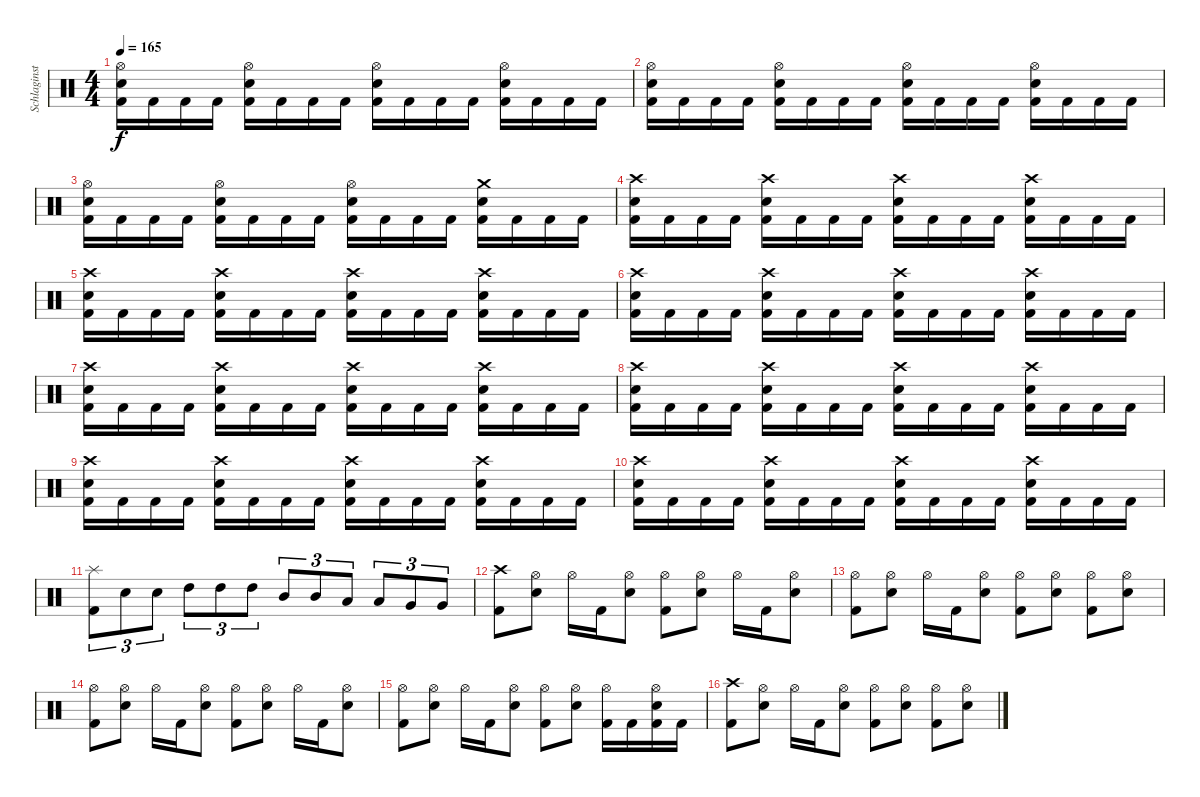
\track ("Schlaginstrumente - Auswahl" "Schlaginst") {instrument percussion}
\staff {score}
\articulation defaults
\ts (4 4)
\tempo 165
\clef neutral
\ks c
("Hi-Hat (open)" "Snare (hit) 2" "Kick (hit) 2").16{dy f} "Kick (hit) 2".16 "Kick (hit) 2".16 "Kick (hit) 2".16 ("Hi-Hat (open)" "Snare (hit) 2" "Kick (hit) 2").16 "Kick (hit) 2".16 "Kick (hit) 2".16 "Kick (hit) 2".16 ("Hi-Hat (open)" "Snare (hit) 2" "Kick (hit) 2").16 "Kick (hit) 2".16 "Kick (hit) 2".16 "Kick (hit) 2".16 ("Hi-Hat (open)" "Snare (hit) 2" "Kick (hit) 2").16 "Kick (hit) 2".16 "Kick (hit) 2".16 "Kick (hit) 2".16 |
("Hi-Hat (open)" "Snare (hit) 2" "Kick (hit) 2").16 "Kick (hit) 2".16 "Kick (hit) 2".16 "Kick (hit) 2".16 ("Hi-Hat (open)" "Snare (hit) 2" "Kick (hit) 2").16 "Kick (hit) 2".16 "Kick (hit) 2".16 "Kick (hit) 2".16 ("Hi-Hat (open)" "Snare (hit) 2" "Kick (hit) 2").16 "Kick (hit) 2".16 "Kick (hit) 2".16 "Kick (hit) 2".16 ("Hi-Hat (open)" "Snare (hit) 2" "Kick (hit) 2").16 "Kick (hit) 2".16 "Kick (hit) 2".16 "Kick (hit) 2".16 |
("Hi-Hat (open)" "Snare (hit) 2" "Kick (hit) 2").16 "Kick (hit) 2".16 "Kick (hit) 2".16 "Kick (hit) 2".16 ("Hi-Hat (open)" "Snare (hit) 2" "Kick (hit) 2").16 "Kick (hit) 2".16 "Kick (hit) 2".16 "Kick (hit) 2".16 ("Hi-Hat (open)" "Snare (hit) 2" "Kick (hit) 2").16 "Kick (hit) 2".16 "Kick (hit) 2".16 "Kick (hit) 2".16 ("Crash medium (hit)" "Snare (hit) 2" "Kick (hit) 2").16 "Kick (hit) 2".16 "Kick (hit) 2".16 "Kick (hit) 2".16 |
("Crash high (hit)" "Snare (hit) 2" "Kick (hit) 2").16 "Kick (hit) 2".16 "Kick (hit) 2".16 "Kick (hit) 2".16 ("Crash high (hit)" "Snare (hit) 2" "Kick (hit) 2").16 "Kick (hit) 2".16 "Kick (hit) 2".16 "Kick (hit) 2".16 ("Crash high (hit)" "Snare (hit) 2" "Kick (hit) 2").16 "Kick (hit) 2".16 "Kick (hit) 2".16 "Kick (hit) 2".16 ("Crash high (hit)" "Snare (hit) 2" "Kick (hit) 2").16 "Kick (hit) 2".16 "Kick (hit) 2".16 "Kick (hit) 2".16 |
("Crash high (hit)" "Snare (hit) 2" "Kick (hit) 2").16 "Kick (hit) 2".16 "Kick (hit) 2".16 "Kick (hit) 2".16 ("Crash high (hit)" "Snare (hit) 2" "Kick (hit) 2").16 "Kick (hit) 2".16 "Kick (hit) 2".16 "Kick (hit) 2".16 ("Crash high (hit)" "Snare (hit) 2" "Kick (hit) 2").16 "Kick (hit) 2".16 "Kick (hit) 2".16 "Kick (hit) 2".16 ("Crash high (hit)" "Snare (hit) 2" "Kick (hit) 2").16 "Kick (hit) 2".16 "Kick (hit) 2".16 "Kick (hit) 2".16 |
("Crash high (hit)" "Snare (hit) 2" "Kick (hit) 2").16 "Kick (hit) 2".16 "Kick (hit) 2".16 "Kick (hit) 2".16 ("Crash high (hit)" "Snare (hit) 2" "Kick (hit) 2").16 "Kick (hit) 2".16 "Kick (hit) 2".16 "Kick (hit) 2".16 ("Crash high (hit)" "Snare (hit) 2" "Kick (hit) 2").16 "Kick (hit) 2".16 "Kick (hit) 2".16 "Kick (hit) 2".16 ("Crash high (hit)" "Snare (hit) 2" "Kick (hit) 2").16 "Kick (hit) 2".16 "Kick (hit) 2".16 "Kick (hit) 2".16 |
("Crash high (hit)" "Snare (hit) 2" "Kick (hit) 2").16 "Kick (hit) 2".16 "Kick (hit) 2".16 "Kick (hit) 2".16 ("Crash high (hit)" "Snare (hit) 2" "Kick (hit) 2").16 "Kick (hit) 2".16 "Kick (hit) 2".16 "Kick (hit) 2".16 ("Crash high (hit)" "Snare (hit) 2" "Kick (hit) 2").16 "Kick (hit) 2".16 "Kick (hit) 2".16 "Kick (hit) 2".16 ("Crash high (hit)" "Snare (hit) 2" "Kick (hit) 2").16 "Kick (hit) 2".16 "Kick (hit) 2".16 "Kick (hit) 2".16 |
("Crash high (hit)" "Snare (hit) 2" "Kick (hit) 2").16 "Kick (hit) 2".16 "Kick (hit) 2".16 "Kick (hit) 2".16 ("Crash high (hit)" "Snare (hit) 2" "Kick (hit) 2").16 "Kick (hit) 2".16 "Kick (hit) 2".16 "Kick (hit) 2".16 ("Crash high (hit)" "Snare (hit) 2" "Kick (hit) 2").16 "Kick (hit) 2".16 "Kick (hit) 2".16 "Kick (hit) 2".16 ("Crash high (hit)" "Snare (hit) 2" "Kick (hit) 2").16 "Kick (hit) 2".16 "Kick (hit) 2".16 "Kick (hit) 2".16 |
("Crash high (hit)" "Snare (hit) 2" "Kick (hit) 2").16 "Kick (hit) 2".16 "Kick (hit) 2".16 "Kick (hit) 2".16 ("Crash high (hit)" "Snare (hit) 2" "Kick (hit) 2").16 "Kick (hit) 2".16 "Kick (hit) 2".16 "Kick (hit) 2".16 ("Crash high (hit)" "Snare (hit) 2" "Kick (hit) 2").16 "Kick (hit) 2".16 "Kick (hit) 2".16 "Kick (hit) 2".16 ("Crash high (hit)" "Snare (hit) 2" "Kick (hit) 2").16 "Kick (hit) 2".16 "Kick (hit) 2".16 "Kick (hit) 2".16 |
("Crash high (hit)" "Snare (hit) 2" "Kick (hit) 2").16 "Kick (hit) 2".16 "Kick (hit) 2".16 "Kick (hit) 2".16 ("Crash high (hit)" "Snare (hit) 2" "Kick (hit) 2").16 "Kick (hit) 2".16 "Kick (hit) 2".16 "Kick (hit) 2".16 ("Crash high (hit)" "Snare (hit) 2" "Kick (hit) 2").16 "Kick (hit) 2".16 "Kick (hit) 2".16 "Kick (hit) 2".16 ("Crash high (hit)" "Snare (hit) 2" "Kick (hit) 2").16 "Kick (hit) 2".16 "Kick (hit) 2".16 "Kick (hit) 2".16 |
("Splash (hit)" "Kick (hit) 2").8{tu (3 2)} "Snare (hit) 2".8{tu (3 2)} "Snare (hit) 2".8{tu (3 2)} "High Tom (hit)".8{tu (3 2)} "High Tom (hit)".8{tu (3 2)} "High Tom (hit)".8{tu (3 2)} "Mid Tom (hit)".8{tu (3 2)} "Mid Tom (hit)".8{tu (3 2)} "Low Tom (hit)".8{tu (3 2)} "Low Tom (hit)".8{tu (3 2)} "Very Low Tom (hit)".8{tu (3 2)} "Very Low Tom (hit)".8{tu (3 2)} |
("Crash high (hit)" "Kick (hit) 2").8 ("Hi-Hat (open)" "Snare (hit) 2").8 "Hi-Hat (open)".16 "Kick (hit) 2".16 ("Hi-Hat (open)" "Snare (hit) 2").8 ("Hi-Hat (open)" "Kick (hit) 2").8 ("Hi-Hat (open)" "Snare (hit) 2").8 "Hi-Hat (open)".16 "Kick (hit) 2".16 ("Hi-Hat (open)" "Snare (hit) 2").8 |
("Hi-Hat (open)" "Kick (hit) 2").8 ("Hi-Hat (open)" "Snare (hit) 2").8 "Hi-Hat (open)".16 "Kick (hit) 2".16 ("Hi-Hat (open)" "Snare (hit) 2").8 ("Hi-Hat (open)" "Kick (hit) 2").8 ("Hi-Hat (open)" "Snare (hit) 2").8 ("Hi-Hat (open)" "Kick (hit) 2").8 ("Hi-Hat (open)" "Snare (hit) 2").8 |
("Hi-Hat (open)" "Kick (hit) 2").8 ("Hi-Hat (open)" "Snare (hit) 2").8 "Hi-Hat (open)".16 "Kick (hit) 2".16 ("Hi-Hat (open)" "Snare (hit) 2").8 ("Hi-Hat (open)" "Kick (hit) 2").8 ("Hi-Hat (open)" "Snare (hit) 2").8 "Hi-Hat (open)".16 "Kick (hit) 2".16 ("Hi-Hat (open)" "Snare (hit) 2").8 |
("Hi-Hat (open)" "Kick (hit) 2").8 ("Hi-Hat (open)" "Snare (hit) 2").8 "Hi-Hat (open)".16 "Kick (hit) 2".16 ("Hi-Hat (open)" "Snare (hit) 2").8 ("Hi-Hat (open)" "Kick (hit) 2").8 ("Hi-Hat (open)" "Snare (hit) 2").8 ("Hi-Hat (open)" "Kick (hit) 2").16 "Kick (hit) 2".16 ("Hi-Hat (open)" "Snare (hit) 2" "Kick (hit) 2").16 "Kick (hit) 2".16 |
("Crash high (hit)" "Kick (hit) 2").8 ("Hi-Hat (open)" "Snare (hit) 2").8 "Hi-Hat (open)".16 "Kick (hit) 2".16 ("Hi-Hat (open)" "Snare (hit) 2").8 ("Hi-Hat (open)" "Kick (hit) 2").8 ("Hi-Hat (open)" "Snare (hit) 2").8 ("Hi-Hat (open)" "Kick (hit) 2").8 ("Hi-Hat (open)" "Snare (hit) 2").8
